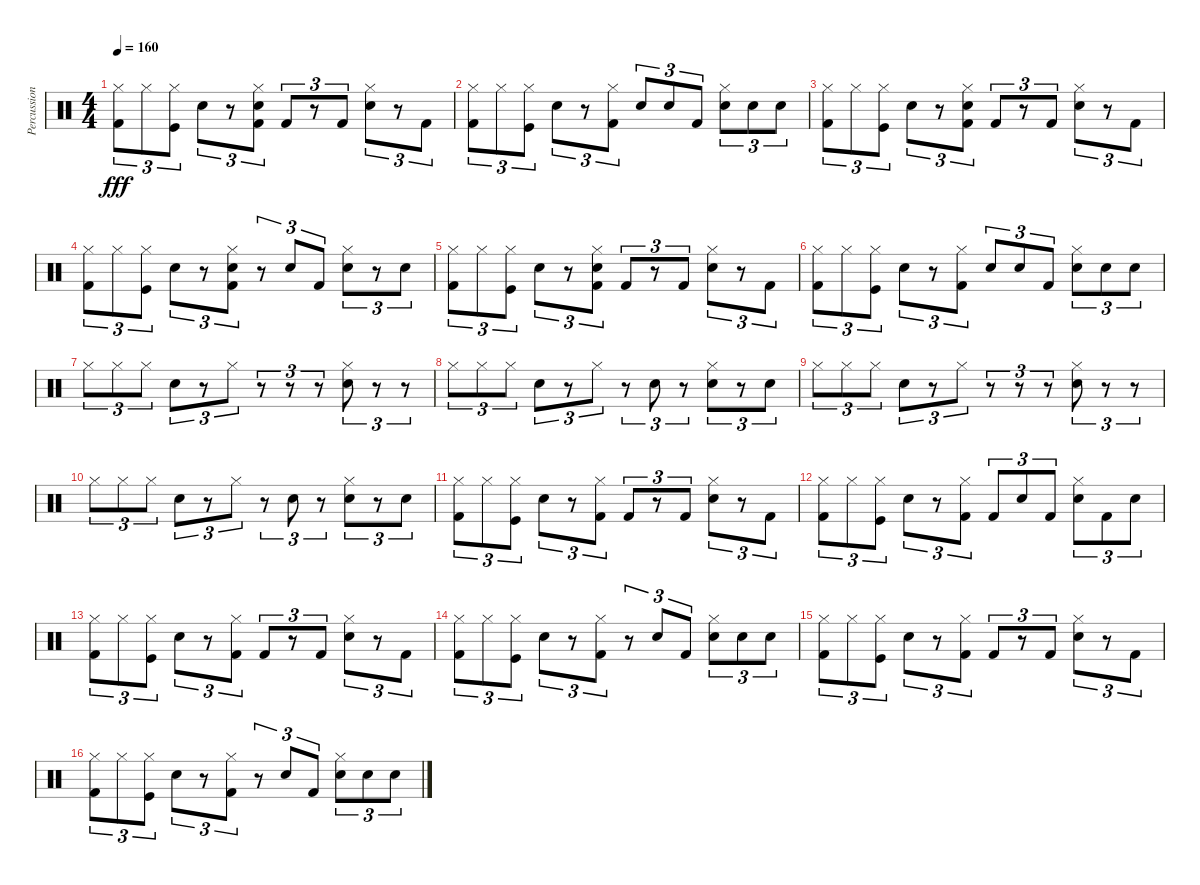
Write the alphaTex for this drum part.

\track ("Percussions" "Percussion") {instrument percussion}
\staff {score}
\articulation defaults
\ts (4 4)
\tempo 160
\clef neutral
\ks c
("Hi-Hat (closed)" "Kick (hit) 2").8{tu (3 2) dy fff} "Hi-Hat (closed)".8{tu (3 2)} ("Hi-Hat (closed)" "Kick (hit)").8{tu (3 2)} "Electric Snare (hit)".8{tu (3 2)} r.8{tu (3 2)} ("Hi-Hat (closed)" "Electric Snare (hit)" "Kick (hit) 2").8{tu (3 2)} "Kick (hit) 2".8{tu (3 2)} r.8{tu (3 2)} "Kick (hit) 2".8{tu (3 2)} ("Hi-Hat (closed)" "Electric Snare (hit)").8{tu (3 2)} r.8{tu (3 2)} "Kick (hit) 2".8{tu (3 2)} |
("Hi-Hat (closed)" "Kick (hit) 2").8{tu (3 2)} "Hi-Hat (closed)".8{tu (3 2)} ("Hi-Hat (closed)" "Kick (hit)").8{tu (3 2)} "Electric Snare (hit)".8{tu (3 2)} r.8{tu (3 2)} ("Hi-Hat (closed)" "Kick (hit) 2").8{tu (3 2)} "Electric Snare (hit)".8{tu (3 2)} "Electric Snare (hit)".8{tu (3 2)} "Kick (hit) 2".8{tu (3 2)} ("Hi-Hat (closed)" "Electric Snare (hit)").8{tu (3 2)} "Electric Snare (hit)".8{tu (3 2)} "Electric Snare (hit)".8{tu (3 2)} |
("Hi-Hat (closed)" "Kick (hit) 2").8{tu (3 2)} "Hi-Hat (closed)".8{tu (3 2)} ("Hi-Hat (closed)" "Kick (hit)").8{tu (3 2)} "Electric Snare (hit)".8{tu (3 2)} r.8{tu (3 2)} ("Hi-Hat (closed)" "Electric Snare (hit)" "Kick (hit) 2").8{tu (3 2)} "Kick (hit) 2".8{tu (3 2)} r.8{tu (3 2)} "Kick (hit) 2".8{tu (3 2)} ("Hi-Hat (closed)" "Electric Snare (hit)").8{tu (3 2)} r.8{tu (3 2)} "Kick (hit) 2".8{tu (3 2)} |
("Hi-Hat (closed)" "Kick (hit) 2").8{tu (3 2)} "Hi-Hat (closed)".8{tu (3 2)} ("Hi-Hat (closed)" "Kick (hit)").8{tu (3 2)} "Electric Snare (hit)".8{tu (3 2)} r.8{tu (3 2)} ("Hi-Hat (closed)" "Electric Snare (hit)" "Kick (hit) 2").8{tu (3 2)} r.8{tu (3 2)} "Electric Snare (hit)".8{tu (3 2)} "Kick (hit) 2".8{tu (3 2)} ("Hi-Hat (closed)" "Electric Snare (hit)").8{tu (3 2)} r.8{tu (3 2)} "Electric Snare (hit)".8{tu (3 2)} |
("Hi-Hat (closed)" "Kick (hit) 2").8{tu (3 2)} "Hi-Hat (closed)".8{tu (3 2)} ("Hi-Hat (closed)" "Kick (hit)").8{tu (3 2)} "Electric Snare (hit)".8{tu (3 2)} r.8{tu (3 2)} ("Hi-Hat (closed)" "Electric Snare (hit)" "Kick (hit) 2").8{tu (3 2)} "Kick (hit) 2".8{tu (3 2)} r.8{tu (3 2)} "Kick (hit) 2".8{tu (3 2)} ("Hi-Hat (closed)" "Electric Snare (hit)").8{tu (3 2)} r.8{tu (3 2)} "Kick (hit) 2".8{tu (3 2)} |
("Hi-Hat (closed)" "Kick (hit) 2").8{tu (3 2)} "Hi-Hat (closed)".8{tu (3 2)} ("Hi-Hat (closed)" "Kick (hit)").8{tu (3 2)} "Electric Snare (hit)".8{tu (3 2)} r.8{tu (3 2)} ("Hi-Hat (closed)" "Kick (hit) 2").8{tu (3 2)} "Electric Snare (hit)".8{tu (3 2)} "Electric Snare (hit)".8{tu (3 2)} "Kick (hit) 2".8{tu (3 2)} ("Hi-Hat (closed)" "Electric Snare (hit)").8{tu (3 2)} "Electric Snare (hit)".8{tu (3 2)} "Electric Snare (hit)".8{tu (3 2)} |
"Hi-Hat (closed)".8{tu (3 2)} "Hi-Hat (closed)".8{tu (3 2)} "Hi-Hat (closed)".8{tu (3 2)} "Electric Snare (hit)".8{tu (3 2)} r.8{tu (3 2)} "Hi-Hat (closed)".8{tu (3 2)} r.8{tu (3 2)} r.8{tu (3 2)} r.8{tu (3 2)} ("Hi-Hat (closed)" "Electric Snare (hit)").8{tu (3 2)} r.8{tu (3 2)} r.8{tu (3 2)} |
"Hi-Hat (closed)".8{tu (3 2)} "Hi-Hat (closed)".8{tu (3 2)} "Hi-Hat (closed)".8{tu (3 2)} "Electric Snare (hit)".8{tu (3 2)} r.8{tu (3 2)} "Hi-Hat (closed)".8{tu (3 2)} r.8{tu (3 2)} "Electric Snare (hit)".8{tu (3 2)} r.8{tu (3 2)} ("Hi-Hat (closed)" "Electric Snare (hit)").8{tu (3 2)} r.8{tu (3 2)} "Electric Snare (hit)".8{tu (3 2)} |
"Hi-Hat (closed)".8{tu (3 2)} "Hi-Hat (closed)".8{tu (3 2)} "Hi-Hat (closed)".8{tu (3 2)} "Electric Snare (hit)".8{tu (3 2)} r.8{tu (3 2)} "Hi-Hat (closed)".8{tu (3 2)} r.8{tu (3 2)} r.8{tu (3 2)} r.8{tu (3 2)} ("Hi-Hat (closed)" "Electric Snare (hit)").8{tu (3 2)} r.8{tu (3 2)} r.8{tu (3 2)} |
"Hi-Hat (closed)".8{tu (3 2)} "Hi-Hat (closed)".8{tu (3 2)} "Hi-Hat (closed)".8{tu (3 2)} "Electric Snare (hit)".8{tu (3 2)} r.8{tu (3 2)} "Hi-Hat (closed)".8{tu (3 2)} r.8{tu (3 2)} "Electric Snare (hit)".8{tu (3 2)} r.8{tu (3 2)} ("Hi-Hat (closed)" "Electric Snare (hit)").8{tu (3 2)} r.8{tu (3 2)} "Electric Snare (hit)".8{tu (3 2)} |
("Hi-Hat (closed)" "Kick (hit) 2").8{tu (3 2)} "Hi-Hat (closed)".8{tu (3 2)} ("Hi-Hat (closed)" "Kick (hit)").8{tu (3 2)} "Electric Snare (hit)".8{tu (3 2)} r.8{tu (3 2)} ("Hi-Hat (closed)" "Kick (hit) 2").8{tu (3 2)} "Kick (hit) 2".8{tu (3 2)} r.8{tu (3 2)} "Kick (hit) 2".8{tu (3 2)} ("Hi-Hat (closed)" "Electric Snare (hit)").8{tu (3 2)} r.8{tu (3 2)} "Kick (hit) 2".8{tu (3 2)} |
("Hi-Hat (closed)" "Kick (hit) 2").8{tu (3 2)} "Hi-Hat (closed)".8{tu (3 2)} ("Hi-Hat (closed)" "Kick (hit)").8{tu (3 2)} "Electric Snare (hit)".8{tu (3 2)} r.8{tu (3 2)} ("Hi-Hat (closed)" "Kick (hit) 2").8{tu (3 2)} "Kick (hit) 2".8{tu (3 2)} "Electric Snare (hit)".8{tu (3 2)} "Kick (hit) 2".8{tu (3 2)} ("Hi-Hat (closed)" "Electric Snare (hit)").8{tu (3 2)} "Kick (hit) 2".8{tu (3 2)} "Electric Snare (hit)".8{tu (3 2)} |
("Hi-Hat (closed)" "Kick (hit) 2").8{tu (3 2)} "Hi-Hat (closed)".8{tu (3 2)} ("Hi-Hat (closed)" "Kick (hit)").8{tu (3 2)} "Electric Snare (hit)".8{tu (3 2)} r.8{tu (3 2)} ("Hi-Hat (closed)" "Kick (hit) 2").8{tu (3 2)} "Kick (hit) 2".8{tu (3 2)} r.8{tu (3 2)} "Kick (hit) 2".8{tu (3 2)} ("Hi-Hat (closed)" "Electric Snare (hit)").8{tu (3 2)} r.8{tu (3 2)} "Kick (hit) 2".8{tu (3 2)} |
("Hi-Hat (closed)" "Kick (hit) 2").8{tu (3 2)} "Hi-Hat (closed)".8{tu (3 2)} ("Hi-Hat (closed)" "Kick (hit)").8{tu (3 2)} "Electric Snare (hit)".8{tu (3 2)} r.8{tu (3 2)} ("Hi-Hat (closed)" "Kick (hit) 2").8{tu (3 2)} r.8{tu (3 2)} "Electric Snare (hit)".8{tu (3 2)} "Kick (hit) 2".8{tu (3 2)} ("Hi-Hat (closed)" "Electric Snare (hit)").8{tu (3 2)} "Electric Snare (hit)".8{tu (3 2)} "Electric Snare (hit)".8{tu (3 2)} |
("Hi-Hat (closed)" "Kick (hit) 2").8{tu (3 2)} "Hi-Hat (closed)".8{tu (3 2)} ("Hi-Hat (closed)" "Kick (hit)").8{tu (3 2)} "Electric Snare (hit)".8{tu (3 2)} r.8{tu (3 2)} ("Hi-Hat (closed)" "Kick (hit) 2").8{tu (3 2)} "Kick (hit) 2".8{tu (3 2)} r.8{tu (3 2)} "Kick (hit) 2".8{tu (3 2)} ("Hi-Hat (closed)" "Electric Snare (hit)").8{tu (3 2)} r.8{tu (3 2)} "Kick (hit) 2".8{tu (3 2)} |
("Hi-Hat (closed)" "Kick (hit) 2").8{tu (3 2)} "Hi-Hat (closed)".8{tu (3 2)} ("Hi-Hat (closed)" "Kick (hit)").8{tu (3 2)} "Electric Snare (hit)".8{tu (3 2)} r.8{tu (3 2)} ("Hi-Hat (closed)" "Kick (hit) 2").8{tu (3 2)} r.8{tu (3 2)} "Electric Snare (hit)".8{tu (3 2)} "Kick (hit) 2".8{tu (3 2)} ("Hi-Hat (closed)" "Electric Snare (hit)").8{tu (3 2)} "Electric Snare (hit)".8{tu (3 2)} "Electric Snare (hit)".8{tu (3 2)}
